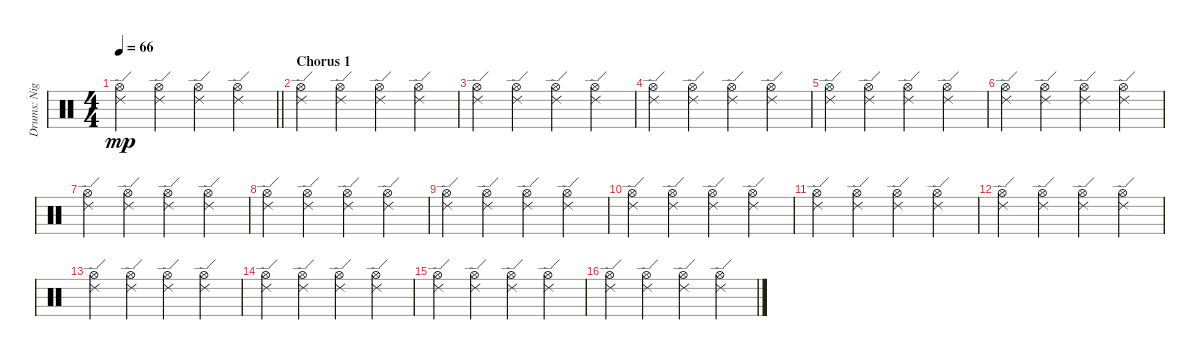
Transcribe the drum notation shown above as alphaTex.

\track ("Drums: Nigel Olsson" "Drums: Nig") {instrument percussion}
\staff {score}
\articulation defaults
\ts (4 4)
\tempo 66
\clef neutral
\barLineRight lightlight
\ks c
("Hi-Hat (open)" "Ride (edge) 2").4{dy mp} ("Hi-Hat (open)" "Ride (edge) 2").4 ("Hi-Hat (open)" "Ride (edge) 2").4 ("Hi-Hat (open)" "Ride (edge) 2").4 |
\section ("" "Chorus 1")
("Hi-Hat (open)" "Ride (edge) 2").4 ("Hi-Hat (open)" "Ride (edge) 2").4 ("Hi-Hat (open)" "Ride (edge) 2").4 ("Hi-Hat (open)" "Ride (edge) 2").4 |
("Hi-Hat (open)" "Ride (edge) 2").4 ("Hi-Hat (open)" "Ride (edge) 2").4 ("Hi-Hat (open)" "Ride (edge) 2").4 ("Hi-Hat (open)" "Ride (edge) 2").4 |
("Hi-Hat (open)" "Ride (edge) 2").4 ("Hi-Hat (open)" "Ride (edge) 2").4 ("Hi-Hat (open)" "Ride (edge) 2").4 ("Hi-Hat (open)" "Ride (edge) 2").4 |
("Hi-Hat (open)" "Ride (edge) 2").4 ("Hi-Hat (open)" "Ride (edge) 2").4 ("Hi-Hat (open)" "Ride (edge) 2").4 ("Hi-Hat (open)" "Ride (edge) 2").4 |
("Hi-Hat (open)" "Ride (edge) 2").4 ("Hi-Hat (open)" "Ride (edge) 2").4 ("Hi-Hat (open)" "Ride (edge) 2").4 ("Hi-Hat (open)" "Ride (edge) 2").4 |
("Hi-Hat (open)" "Ride (edge) 2").4 ("Hi-Hat (open)" "Ride (edge) 2").4 ("Hi-Hat (open)" "Ride (edge) 2").4 ("Hi-Hat (open)" "Ride (edge) 2").4 |
("Hi-Hat (open)" "Ride (edge) 2").4 ("Hi-Hat (open)" "Ride (edge) 2").4 ("Hi-Hat (open)" "Ride (edge) 2").4 ("Hi-Hat (open)" "Ride (edge) 2").4 |
("Hi-Hat (open)" "Ride (edge) 2").4 ("Hi-Hat (open)" "Ride (edge) 2").4 ("Hi-Hat (open)" "Ride (edge) 2").4 ("Hi-Hat (open)" "Ride (edge) 2").4 |
("Hi-Hat (open)" "Ride (edge) 2").4 ("Hi-Hat (open)" "Ride (edge) 2").4 ("Hi-Hat (open)" "Ride (edge) 2").4 ("Hi-Hat (open)" "Ride (edge) 2").4 |
("Hi-Hat (open)" "Ride (edge) 2").4 ("Hi-Hat (open)" "Ride (edge) 2").4 ("Hi-Hat (open)" "Ride (edge) 2").4 ("Hi-Hat (open)" "Ride (edge) 2").4 |
("Hi-Hat (open)" "Ride (edge) 2").4 ("Hi-Hat (open)" "Ride (edge) 2").4 ("Hi-Hat (open)" "Ride (edge) 2").4 ("Hi-Hat (open)" "Ride (edge) 2").4 |
("Hi-Hat (open)" "Ride (edge) 2").4 ("Hi-Hat (open)" "Ride (edge) 2").4 ("Hi-Hat (open)" "Ride (edge) 2").4 ("Hi-Hat (open)" "Ride (edge) 2").4 |
("Hi-Hat (open)" "Ride (edge) 2").4 ("Hi-Hat (open)" "Ride (edge) 2").4 ("Hi-Hat (open)" "Ride (edge) 2").4 ("Hi-Hat (open)" "Ride (edge) 2").4 |
("Hi-Hat (open)" "Ride (edge) 2").4 ("Hi-Hat (open)" "Ride (edge) 2").4 ("Hi-Hat (open)" "Ride (edge) 2").4 ("Hi-Hat (open)" "Ride (edge) 2").4 |
("Hi-Hat (open)" "Ride (edge) 2").4 ("Hi-Hat (open)" "Ride (edge) 2").4 ("Hi-Hat (open)" "Ride (edge) 2").4 ("Hi-Hat (open)" "Ride (edge) 2").4
